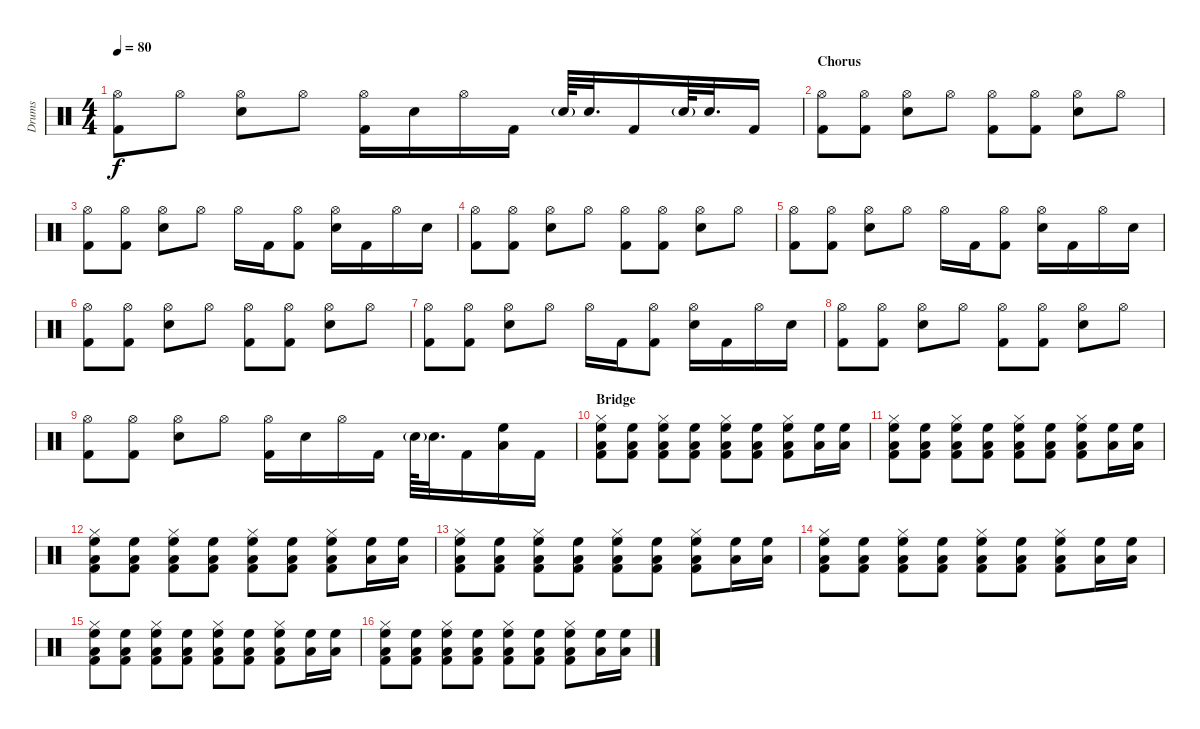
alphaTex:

\track ("Drums" "Drums") {instrument percussion}
\staff {score}
\articulation defaults
\ts (4 4)
\tempo 80
\clef neutral
\ks c
("Hi-Hat (open)" "Kick (hit) 2").8{dy f} "Hi-Hat (open)".8 ("Hi-Hat (open)" "Snare (hit) 2").8 "Hi-Hat (open)".8 ("Hi-Hat (open)" "Kick (hit) 2").16 "Snare (hit) 2".16 "Hi-Hat (open)".16 "Kick (hit) 2".16 "Snare (hit) 2"{g}.64 "Snare (hit) 2".32{d} "Kick (hit) 2".16 "Snare (hit) 2"{g}.64 "Snare (hit) 2".32{d} "Kick (hit) 2".16 |
\section ("" "Chorus")
("Hi-Hat (open)" "Kick (hit) 2").8 ("Hi-Hat (open)" "Kick (hit) 2").8 ("Hi-Hat (open)" "Snare (hit) 2").8 "Hi-Hat (open)".8 ("Hi-Hat (open)" "Kick (hit) 2").8 ("Hi-Hat (open)" "Kick (hit) 2").8 ("Hi-Hat (open)" "Snare (hit) 2").8 "Hi-Hat (open)".8 |
("Hi-Hat (open)" "Kick (hit) 2").8 ("Hi-Hat (open)" "Kick (hit) 2").8 ("Hi-Hat (open)" "Snare (hit) 2").8 "Hi-Hat (open)".8 "Hi-Hat (open)".16 "Kick (hit) 2".16 ("Hi-Hat (open)" "Kick (hit) 2").8 ("Hi-Hat (open)" "Snare (hit) 2").16 "Kick (hit) 2".16 "Hi-Hat (open)".16 "Snare (hit) 2".16 |
("Hi-Hat (open)" "Kick (hit) 2").8 ("Hi-Hat (open)" "Kick (hit) 2").8 ("Hi-Hat (open)" "Snare (hit) 2").8 "Hi-Hat (open)".8 ("Hi-Hat (open)" "Kick (hit) 2").8 ("Hi-Hat (open)" "Kick (hit) 2").8 ("Hi-Hat (open)" "Snare (hit) 2").8 "Hi-Hat (open)".8 |
("Hi-Hat (open)" "Kick (hit) 2").8 ("Hi-Hat (open)" "Kick (hit) 2").8 ("Hi-Hat (open)" "Snare (hit) 2").8 "Hi-Hat (open)".8 "Hi-Hat (open)".16 "Kick (hit) 2".16 ("Hi-Hat (open)" "Kick (hit) 2").8 ("Hi-Hat (open)" "Snare (hit) 2").16 "Kick (hit) 2".16 "Hi-Hat (open)".16 "Snare (hit) 2".16 |
("Hi-Hat (open)" "Kick (hit) 2").8 ("Hi-Hat (open)" "Kick (hit) 2").8 ("Hi-Hat (open)" "Snare (hit) 2").8 "Hi-Hat (open)".8 ("Hi-Hat (open)" "Kick (hit) 2").8 ("Hi-Hat (open)" "Kick (hit) 2").8 ("Hi-Hat (open)" "Snare (hit) 2").8 "Hi-Hat (open)".8 |
("Hi-Hat (open)" "Kick (hit) 2").8 ("Hi-Hat (open)" "Kick (hit) 2").8 ("Hi-Hat (open)" "Snare (hit) 2").8 "Hi-Hat (open)".8 "Hi-Hat (open)".16 "Kick (hit) 2".16 ("Hi-Hat (open)" "Kick (hit) 2").8 ("Hi-Hat (open)" "Snare (hit) 2").16 "Kick (hit) 2".16 "Hi-Hat (open)".16 "Snare (hit) 2".16 |
("Hi-Hat (open)" "Kick (hit) 2").8 ("Hi-Hat (open)" "Kick (hit) 2").8 ("Hi-Hat (open)" "Snare (hit) 2").8 "Hi-Hat (open)".8 ("Hi-Hat (open)" "Kick (hit) 2").8 ("Hi-Hat (open)" "Kick (hit) 2").8 ("Hi-Hat (open)" "Snare (hit) 2").8 "Hi-Hat (open)".8 |
("Hi-Hat (open)" "Kick (hit) 2").8 ("Hi-Hat (open)" "Kick (hit) 2").8 ("Hi-Hat (open)" "Snare (hit) 2").8 "Hi-Hat (open)".8 ("Hi-Hat (open)" "Kick (hit) 2").16 "Snare (hit) 2".16 "Hi-Hat (open)".16 "Kick (hit) 2".16 "Snare (hit) 2"{g}.64 "Snare (hit) 2".32{d} "Kick (hit) 2".16 ("High Floor Tom (hit)" "Low Tom (hit)").16 "Kick (hit) 2".16 |
\section ("" "Bridge")
("Kick (hit) 2" "Low Tom (hit)" "High Floor Tom (hit)" "Hi-Hat (closed)").8 ("Kick (hit) 2" "Low Tom (hit)" "High Floor Tom (hit)").8 ("Kick (hit) 2" "Low Tom (hit)" "High Floor Tom (hit)" "Hi-Hat (closed)").8 ("Kick (hit) 2" "Low Tom (hit)" "High Floor Tom (hit)").8 ("Kick (hit) 2" "Low Tom (hit)" "High Floor Tom (hit)" "Hi-Hat (closed)").8 ("Kick (hit) 2" "Low Tom (hit)" "High Floor Tom (hit)").8 ("Kick (hit) 2" "Low Tom (hit)" "High Floor Tom (hit)" "Hi-Hat (closed)").8 ("Low Tom (hit)" "High Floor Tom (hit)").16 ("Low Tom (hit)" "High Floor Tom (hit)").16 |
("Kick (hit) 2" "Low Tom (hit)" "High Floor Tom (hit)" "Hi-Hat (closed)").8 ("Kick (hit) 2" "Low Tom (hit)" "High Floor Tom (hit)").8 ("Kick (hit) 2" "Low Tom (hit)" "High Floor Tom (hit)" "Hi-Hat (closed)").8 ("Kick (hit) 2" "Low Tom (hit)" "High Floor Tom (hit)").8 ("Kick (hit) 2" "Low Tom (hit)" "High Floor Tom (hit)" "Hi-Hat (closed)").8 ("Kick (hit) 2" "Low Tom (hit)" "High Floor Tom (hit)").8 ("Kick (hit) 2" "Low Tom (hit)" "High Floor Tom (hit)" "Hi-Hat (closed)").8 ("Low Tom (hit)" "High Floor Tom (hit)").16 ("Low Tom (hit)" "High Floor Tom (hit)").16 |
("Kick (hit) 2" "Low Tom (hit)" "High Floor Tom (hit)" "Hi-Hat (closed)").8 ("Kick (hit) 2" "Low Tom (hit)" "High Floor Tom (hit)").8 ("Kick (hit) 2" "Low Tom (hit)" "High Floor Tom (hit)" "Hi-Hat (closed)").8 ("Kick (hit) 2" "Low Tom (hit)" "High Floor Tom (hit)").8 ("Kick (hit) 2" "Low Tom (hit)" "High Floor Tom (hit)" "Hi-Hat (closed)").8 ("Kick (hit) 2" "Low Tom (hit)" "High Floor Tom (hit)").8 ("Kick (hit) 2" "Low Tom (hit)" "High Floor Tom (hit)" "Hi-Hat (closed)").8 ("Low Tom (hit)" "High Floor Tom (hit)").16 ("Low Tom (hit)" "High Floor Tom (hit)").16 |
("Kick (hit) 2" "Low Tom (hit)" "High Floor Tom (hit)" "Hi-Hat (closed)").8 ("Kick (hit) 2" "Low Tom (hit)" "High Floor Tom (hit)").8 ("Kick (hit) 2" "Low Tom (hit)" "High Floor Tom (hit)" "Hi-Hat (closed)").8 ("Kick (hit) 2" "Low Tom (hit)" "High Floor Tom (hit)").8 ("Kick (hit) 2" "Low Tom (hit)" "High Floor Tom (hit)" "Hi-Hat (closed)").8 ("Kick (hit) 2" "Low Tom (hit)" "High Floor Tom (hit)").8 ("Kick (hit) 2" "Low Tom (hit)" "High Floor Tom (hit)" "Hi-Hat (closed)").8 ("Low Tom (hit)" "High Floor Tom (hit)").16 ("Low Tom (hit)" "High Floor Tom (hit)").16 |
("Kick (hit) 2" "Low Tom (hit)" "High Floor Tom (hit)" "Hi-Hat (closed)").8 ("Kick (hit) 2" "Low Tom (hit)" "High Floor Tom (hit)").8 ("Kick (hit) 2" "Low Tom (hit)" "High Floor Tom (hit)" "Hi-Hat (closed)").8 ("Kick (hit) 2" "Low Tom (hit)" "High Floor Tom (hit)").8 ("Kick (hit) 2" "Low Tom (hit)" "High Floor Tom (hit)" "Hi-Hat (closed)").8 ("Kick (hit) 2" "Low Tom (hit)" "High Floor Tom (hit)").8 ("Kick (hit) 2" "Low Tom (hit)" "High Floor Tom (hit)" "Hi-Hat (closed)").8 ("Low Tom (hit)" "High Floor Tom (hit)").16 ("Low Tom (hit)" "High Floor Tom (hit)").16 |
("Kick (hit) 2" "Low Tom (hit)" "High Floor Tom (hit)" "Hi-Hat (closed)").8 ("Kick (hit) 2" "Low Tom (hit)" "High Floor Tom (hit)").8 ("Kick (hit) 2" "Low Tom (hit)" "High Floor Tom (hit)" "Hi-Hat (closed)").8 ("Kick (hit) 2" "Low Tom (hit)" "High Floor Tom (hit)").8 ("Kick (hit) 2" "Low Tom (hit)" "High Floor Tom (hit)" "Hi-Hat (closed)").8 ("Kick (hit) 2" "Low Tom (hit)" "High Floor Tom (hit)").8 ("Kick (hit) 2" "Low Tom (hit)" "High Floor Tom (hit)" "Hi-Hat (closed)").8 ("Low Tom (hit)" "High Floor Tom (hit)").16 ("Low Tom (hit)" "High Floor Tom (hit)").16 |
("Kick (hit) 2" "Low Tom (hit)" "High Floor Tom (hit)" "Hi-Hat (closed)").8 ("Kick (hit) 2" "Low Tom (hit)" "High Floor Tom (hit)").8 ("Kick (hit) 2" "Low Tom (hit)" "High Floor Tom (hit)" "Hi-Hat (closed)").8 ("Kick (hit) 2" "Low Tom (hit)" "High Floor Tom (hit)").8 ("Kick (hit) 2" "Low Tom (hit)" "High Floor Tom (hit)" "Hi-Hat (closed)").8 ("Kick (hit) 2" "Low Tom (hit)" "High Floor Tom (hit)").8 ("Kick (hit) 2" "Low Tom (hit)" "High Floor Tom (hit)" "Hi-Hat (closed)").8 ("Low Tom (hit)" "High Floor Tom (hit)").16 ("Low Tom (hit)" "High Floor Tom (hit)").16
